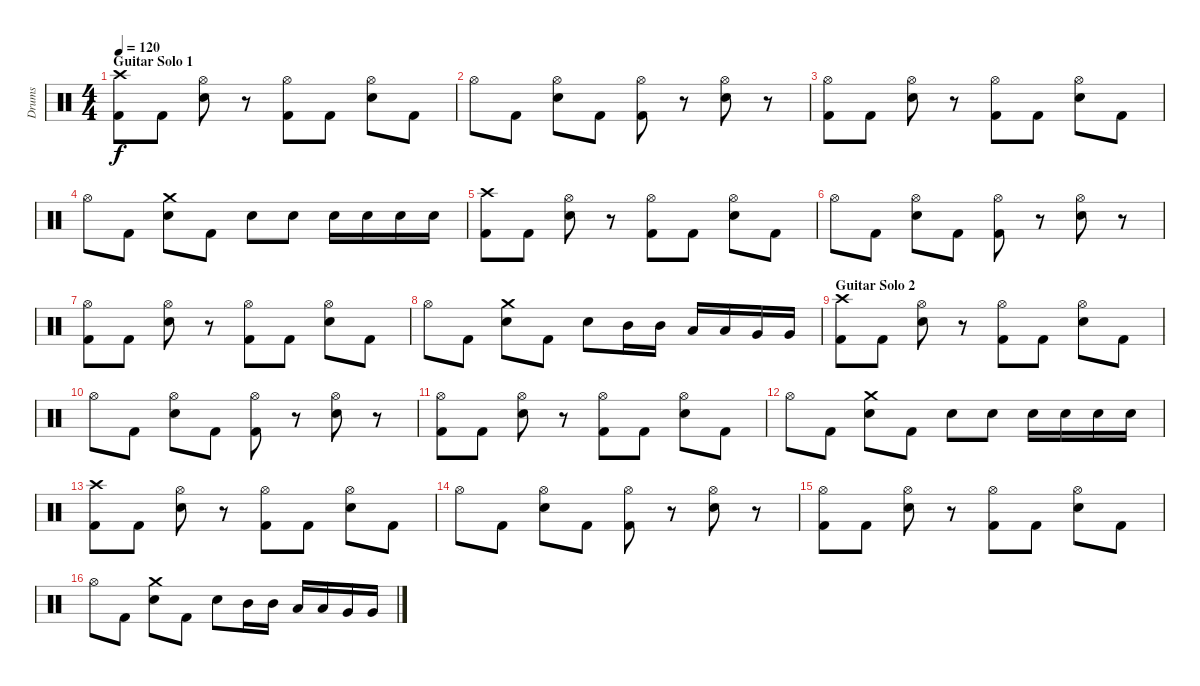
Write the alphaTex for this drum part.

\track ("Drums" "Drums") {instrument percussion}
\staff {score}
\articulation defaults
\ts (4 4)
\section ("" "Guitar Solo 1")
\tempo 120
\clef neutral
\ks c
("Crash high (hit)" "Kick (hit) 2").8{dy f} "Kick (hit) 2".8 ("Hi-Hat (open)" "Snare (hit) 2").8 r.8 ("Hi-Hat (open)" "Kick (hit) 2").8 "Kick (hit) 2".8 ("Hi-Hat (open)" "Snare (hit) 2").8 "Kick (hit) 2".8 |
"Hi-Hat (open)".8 "Kick (hit) 2".8 ("Hi-Hat (open)" "Snare (hit) 2").8 "Kick (hit) 2".8 ("Hi-Hat (open)" "Kick (hit) 2").8 r.8 ("Hi-Hat (open)" "Snare (hit) 2").8 r.8 |
("Hi-Hat (open)" "Kick (hit) 2").8 "Kick (hit) 2".8 ("Hi-Hat (open)" "Snare (hit) 2").8 r.8 ("Hi-Hat (open)" "Kick (hit) 2").8 "Kick (hit) 2".8 ("Hi-Hat (open)" "Snare (hit) 2").8 "Kick (hit) 2".8 |
"Hi-Hat (open)".8 "Kick (hit) 2".8 ("Crash medium (hit)" "Snare (hit) 2").8 "Kick (hit) 2".8 "Snare (hit) 2".8 "Snare (hit) 2".8 "Snare (hit) 2".16 "Snare (hit) 2".16 "Snare (hit) 2".16 "Snare (hit) 2".16 |
("Crash high (hit)" "Kick (hit) 2").8 "Kick (hit) 2".8 ("Hi-Hat (open)" "Snare (hit) 2").8 r.8 ("Hi-Hat (open)" "Kick (hit) 2").8 "Kick (hit) 2".8 ("Hi-Hat (open)" "Snare (hit) 2").8 "Kick (hit) 2".8 |
"Hi-Hat (open)".8 "Kick (hit) 2".8 ("Hi-Hat (open)" "Snare (hit) 2").8 "Kick (hit) 2".8 ("Hi-Hat (open)" "Kick (hit) 2").8 r.8 ("Hi-Hat (open)" "Snare (hit) 2").8 r.8 |
("Hi-Hat (open)" "Kick (hit) 2").8 "Kick (hit) 2".8 ("Hi-Hat (open)" "Snare (hit) 2").8 r.8 ("Hi-Hat (open)" "Kick (hit) 2").8 "Kick (hit) 2".8 ("Hi-Hat (open)" "Snare (hit) 2").8 "Kick (hit) 2".8 |
"Hi-Hat (open)".8 "Kick (hit) 2".8 ("Crash medium (hit)" "Snare (hit) 2").8 "Kick (hit) 2".8 "Snare (hit) 2".8 "Mid Tom (hit)".16 "Mid Tom (hit)".16 "Low Tom (hit)".16 "Low Tom (hit)".16 "Very Low Tom (hit)".16 "Very Low Tom (hit)".16 |
\section ("" "Guitar Solo 2")
("Crash high (hit)" "Kick (hit) 2").8 "Kick (hit) 2".8 ("Hi-Hat (open)" "Snare (hit) 2").8 r.8 ("Hi-Hat (open)" "Kick (hit) 2").8 "Kick (hit) 2".8 ("Hi-Hat (open)" "Snare (hit) 2").8 "Kick (hit) 2".8 |
"Hi-Hat (open)".8 "Kick (hit) 2".8 ("Hi-Hat (open)" "Snare (hit) 2").8 "Kick (hit) 2".8 ("Hi-Hat (open)" "Kick (hit) 2").8 r.8 ("Hi-Hat (open)" "Snare (hit) 2").8 r.8 |
("Hi-Hat (open)" "Kick (hit) 2").8 "Kick (hit) 2".8 ("Hi-Hat (open)" "Snare (hit) 2").8 r.8 ("Hi-Hat (open)" "Kick (hit) 2").8 "Kick (hit) 2".8 ("Hi-Hat (open)" "Snare (hit) 2").8 "Kick (hit) 2".8 |
"Hi-Hat (open)".8 "Kick (hit) 2".8 ("Crash medium (hit)" "Snare (hit) 2").8 "Kick (hit) 2".8 "Snare (hit) 2".8 "Snare (hit) 2".8 "Snare (hit) 2".16 "Snare (hit) 2".16 "Snare (hit) 2".16 "Snare (hit) 2".16 |
("Crash high (hit)" "Kick (hit) 2").8 "Kick (hit) 2".8 ("Hi-Hat (open)" "Snare (hit) 2").8 r.8 ("Hi-Hat (open)" "Kick (hit) 2").8 "Kick (hit) 2".8 ("Hi-Hat (open)" "Snare (hit) 2").8 "Kick (hit) 2".8 |
"Hi-Hat (open)".8 "Kick (hit) 2".8 ("Hi-Hat (open)" "Snare (hit) 2").8 "Kick (hit) 2".8 ("Hi-Hat (open)" "Kick (hit) 2").8 r.8 ("Hi-Hat (open)" "Snare (hit) 2").8 r.8 |
("Hi-Hat (open)" "Kick (hit) 2").8 "Kick (hit) 2".8 ("Hi-Hat (open)" "Snare (hit) 2").8 r.8 ("Hi-Hat (open)" "Kick (hit) 2").8 "Kick (hit) 2".8 ("Hi-Hat (open)" "Snare (hit) 2").8 "Kick (hit) 2".8 |
"Hi-Hat (open)".8 "Kick (hit) 2".8 ("Crash medium (hit)" "Snare (hit) 2").8 "Kick (hit) 2".8 "Snare (hit) 2".8 "Mid Tom (hit)".16 "Mid Tom (hit)".16 "Low Tom (hit)".16 "Low Tom (hit)".16 "Very Low Tom (hit)".16 "Very Low Tom (hit)".16
